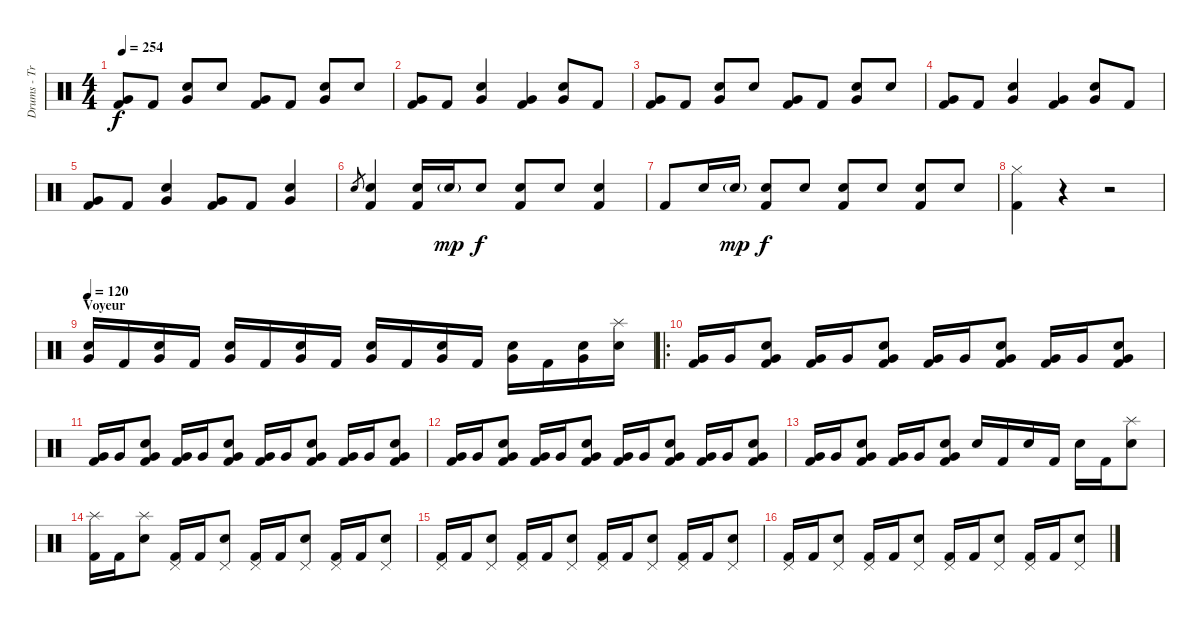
\track ("Drums - Travis Barker" "Drums - Tr") {instrument percussion}
\staff {score}
\articulation defaults
\ts (4 4)
\tempo 254
\clef neutral
\ks c
("Very Low Tom (hit)" "Kick (hit) 2").8{dy f} "Kick (hit) 2".8 ("Very Low Tom (hit)" "Electric Snare (hit)").8 "Electric Snare (hit)".8 ("Very Low Tom (hit)" "Kick (hit) 2").8 "Kick (hit) 2".8 ("Very Low Tom (hit)" "Electric Snare (hit)").8 "Electric Snare (hit)".8 |
("Very Low Tom (hit)" "Kick (hit) 2").8 "Kick (hit) 2".8 ("Very Low Tom (hit)" "Electric Snare (hit)").4 ("Very Low Tom (hit)" "Kick (hit) 2").4 ("Very Low Tom (hit)" "Electric Snare (hit)").8 "Kick (hit) 2".8 |
("Very Low Tom (hit)" "Kick (hit) 2").8 "Kick (hit) 2".8 ("Very Low Tom (hit)" "Electric Snare (hit)").8 "Electric Snare (hit)".8 ("Very Low Tom (hit)" "Kick (hit) 2").8 "Kick (hit) 2".8 ("Very Low Tom (hit)" "Electric Snare (hit)").8 "Electric Snare (hit)".8 |
("Very Low Tom (hit)" "Kick (hit) 2").8 "Kick (hit) 2".8 ("Very Low Tom (hit)" "Electric Snare (hit)").4 ("Very Low Tom (hit)" "Kick (hit) 2").4 ("Very Low Tom (hit)" "Electric Snare (hit)").8 "Kick (hit) 2".8 |
("Very Low Tom (hit)" "Kick (hit) 2").8 "Kick (hit) 2".8 ("Very Low Tom (hit)" "Electric Snare (hit)").4 ("Very Low Tom (hit)" "Kick (hit) 2").8 "Kick (hit) 2".8 ("Very Low Tom (hit)" "Electric Snare (hit)").4 |
"Electric Snare (hit)".8{gr} ("Electric Snare (hit)" "Kick (hit) 2").4 ("Electric Snare (hit)" "Kick (hit) 2").16 "Electric Snare (hit)"{g}.16{dy mp} "Electric Snare (hit)".8{dy f} ("Electric Snare (hit)" "Kick (hit) 2").8 "Electric Snare (hit)".8 ("Electric Snare (hit)" "Kick (hit) 2").4 |
"Kick (hit) 2".8 "Electric Snare (hit)".16 "Electric Snare (hit)"{g}.16{dy mp} ("Electric Snare (hit)" "Kick (hit) 2").8{dy f} "Electric Snare (hit)".8 ("Electric Snare (hit)" "Kick (hit) 2").8 "Electric Snare (hit)".8 ("Electric Snare (hit)" "Kick (hit) 2").8 "Electric Snare (hit)".8 |
("Hi-Hat (closed)" "Kick (hit) 2").4 r.4 r.2 |
\section ("" "Voyeur")
\tempo 120
("Very Low Tom (hit)" "Electric Snare (hit)").16 "Kick (hit) 2".16 ("Very Low Tom (hit)" "Electric Snare (hit)").16 "Kick (hit) 2".16 ("Very Low Tom (hit)" "Electric Snare (hit)").16 "Kick (hit) 2".16 ("Very Low Tom (hit)" "Electric Snare (hit)").16 "Kick (hit) 2".16 ("Very Low Tom (hit)" "Electric Snare (hit)").16 "Kick (hit) 2".16 ("Very Low Tom (hit)" "Electric Snare (hit)").16 "Kick (hit) 2".16 ("Very Low Tom (hit)" "Electric Snare (hit)").16 "Kick (hit) 2".16 ("Very Low Tom (hit)" "Electric Snare (hit)").16 ("Splash (hit)" "Electric Snare (hit)").16 |
\ro
("Very Low Tom (hit)" "Kick (hit) 2").16 "Very Low Tom (hit)".16 ("Very Low Tom (hit)" "Electric Snare (hit)" "Kick (hit) 2").8 ("Very Low Tom (hit)" "Kick (hit) 2").16 "Very Low Tom (hit)".16 ("Very Low Tom (hit)" "Electric Snare (hit)" "Kick (hit) 2").8 ("Very Low Tom (hit)" "Kick (hit) 2").16 "Very Low Tom (hit)".16 ("Very Low Tom (hit)" "Electric Snare (hit)" "Kick (hit) 2").8 ("Very Low Tom (hit)" "Kick (hit) 2").16 "Very Low Tom (hit)".16 ("Very Low Tom (hit)" "Electric Snare (hit)" "Kick (hit) 2").8 |
("Very Low Tom (hit)" "Kick (hit) 2").16 "Very Low Tom (hit)".16 ("Very Low Tom (hit)" "Electric Snare (hit)" "Kick (hit) 2").8 ("Very Low Tom (hit)" "Kick (hit) 2").16 "Very Low Tom (hit)".16 ("Very Low Tom (hit)" "Electric Snare (hit)" "Kick (hit) 2").8 ("Very Low Tom (hit)" "Kick (hit) 2").16 "Very Low Tom (hit)".16 ("Very Low Tom (hit)" "Electric Snare (hit)" "Kick (hit) 2").8 ("Very Low Tom (hit)" "Kick (hit) 2").16 "Very Low Tom (hit)".16 ("Very Low Tom (hit)" "Electric Snare (hit)" "Kick (hit) 2").8 |
("Very Low Tom (hit)" "Kick (hit) 2").16 "Very Low Tom (hit)".16 ("Very Low Tom (hit)" "Electric Snare (hit)" "Kick (hit) 2").8 ("Very Low Tom (hit)" "Kick (hit) 2").16 "Very Low Tom (hit)".16 ("Very Low Tom (hit)" "Electric Snare (hit)" "Kick (hit) 2").8 ("Very Low Tom (hit)" "Kick (hit) 2").16 "Very Low Tom (hit)".16 ("Very Low Tom (hit)" "Electric Snare (hit)" "Kick (hit) 2").8 ("Very Low Tom (hit)" "Kick (hit) 2").16 "Very Low Tom (hit)".16 ("Very Low Tom (hit)" "Electric Snare (hit)" "Kick (hit) 2").8 |
("Very Low Tom (hit)" "Kick (hit) 2").16 "Very Low Tom (hit)".16 ("Very Low Tom (hit)" "Electric Snare (hit)" "Kick (hit) 2").8 ("Very Low Tom (hit)" "Kick (hit) 2").16 "Very Low Tom (hit)".16 ("Very Low Tom (hit)" "Electric Snare (hit)" "Kick (hit) 2").8 "Electric Snare (hit)".16 "Kick (hit) 2".16 "Electric Snare (hit)".16 "Kick (hit) 2".16 "Electric Snare (hit)".16 "Kick (hit) 2".16 ("Splash (hit)" "Electric Snare (hit)").8 |
("Splash (hit)" "Kick (hit) 2").16 "Kick (hit) 2".16 ("Splash (hit)" "Electric Snare (hit)").8 ("Pedal Hi-Hat (hit)" "Kick (hit) 2").16 "Kick (hit) 2".16 ("Pedal Hi-Hat (hit)" "Electric Snare (hit)").8 ("Pedal Hi-Hat (hit)" "Kick (hit) 2").16 "Kick (hit) 2".16 ("Pedal Hi-Hat (hit)" "Electric Snare (hit)").8 ("Pedal Hi-Hat (hit)" "Kick (hit) 2").16 "Kick (hit) 2".16 ("Pedal Hi-Hat (hit)" "Electric Snare (hit)").8 |
("Pedal Hi-Hat (hit)" "Kick (hit) 2").16 "Kick (hit) 2".16 ("Pedal Hi-Hat (hit)" "Electric Snare (hit)").8 ("Pedal Hi-Hat (hit)" "Kick (hit) 2").16 "Kick (hit) 2".16 ("Pedal Hi-Hat (hit)" "Electric Snare (hit)").8 ("Pedal Hi-Hat (hit)" "Kick (hit) 2").16 "Kick (hit) 2".16 ("Pedal Hi-Hat (hit)" "Electric Snare (hit)").8 ("Pedal Hi-Hat (hit)" "Kick (hit) 2").16 "Kick (hit) 2".16 ("Pedal Hi-Hat (hit)" "Electric Snare (hit)").8 |
("Pedal Hi-Hat (hit)" "Kick (hit) 2").16 "Kick (hit) 2".16 ("Pedal Hi-Hat (hit)" "Electric Snare (hit)").8 ("Pedal Hi-Hat (hit)" "Kick (hit) 2").16 "Kick (hit) 2".16 ("Pedal Hi-Hat (hit)" "Electric Snare (hit)").8 ("Pedal Hi-Hat (hit)" "Kick (hit) 2").16 "Kick (hit) 2".16 ("Pedal Hi-Hat (hit)" "Electric Snare (hit)").8 ("Pedal Hi-Hat (hit)" "Kick (hit) 2").16 "Kick (hit) 2".16 ("Pedal Hi-Hat (hit)" "Electric Snare (hit)").8
